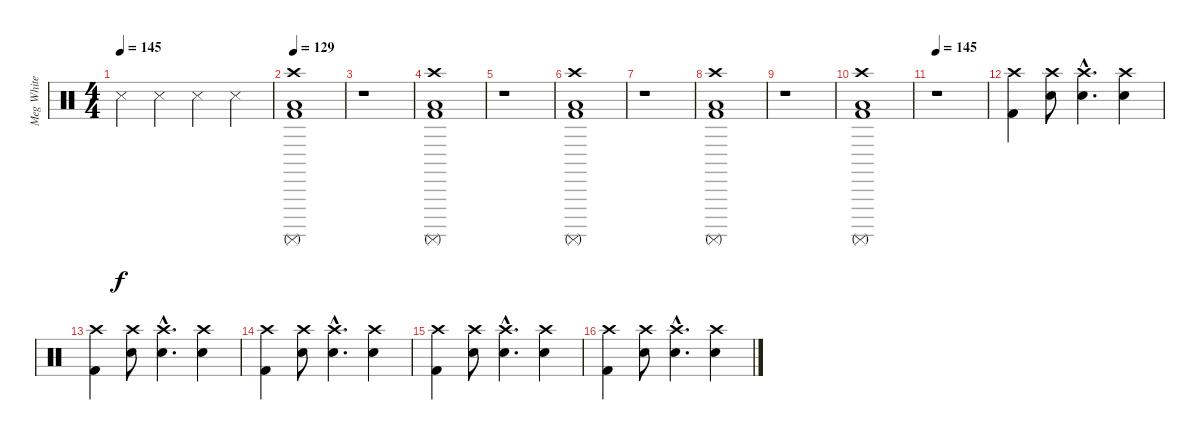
\track ("Meg White" "Meg White") {instrument percussion}
\staff {score}
\articulation defaults
\ts (4 4)
\tempo 145
\clef neutral
\ks c "Metronome (hit)".4{dy f} "Metronome (hit)".4 "Metronome (hit)".4 "Metronome (hit)".4
|
\tempo 129
("Crash high (hit)" "Low Tom (hit)" "Surdo (mute)" "Kick (hit) 2").1 |
r.1 |
("Crash high (hit)" "Low Tom (hit)" "Surdo (mute)" "Kick (hit) 2").1 |
r.1 |
("Crash high (hit)" "Low Tom (hit)" "Surdo (mute)" "Kick (hit) 2").1 |
r.1 |
("Crash high (hit)" "Low Tom (hit)" "Surdo (mute)" "Kick (hit) 2").1 |
r.1 |
("Crash high (hit)" "Low Tom (hit)" "Surdo (mute)" "Kick (hit) 2").1 |
\tempo 145
r.1 |
("Crash high (hit)" "Kick (hit) 2").4 ("Crash high (hit)" "Electric Snare (hit)").8 ("Crash high (hit)"{hac} "Electric Snare (hit)"{hac}).4{d} ("Crash high (hit)" "Electric Snare (hit)").4 |
("Crash high (hit)" "Kick (hit) 2").4 ("Crash high (hit)" "Electric Snare (hit)").8 ("Crash high (hit)"{hac} "Electric Snare (hit)"{hac}).4{d} ("Crash high (hit)" "Electric Snare (hit)").4 |
("Crash high (hit)" "Kick (hit) 2").4 ("Crash high (hit)" "Electric Snare (hit)").8 ("Crash high (hit)"{hac} "Electric Snare (hit)"{hac}).4{d} ("Crash high (hit)" "Electric Snare (hit)").4 |
("Crash high (hit)" "Kick (hit) 2").4 ("Crash high (hit)" "Electric Snare (hit)").8 ("Crash high (hit)"{hac} "Electric Snare (hit)"{hac}).4{d} ("Crash high (hit)" "Electric Snare (hit)").4 |
("Crash high (hit)" "Kick (hit) 2").4 ("Crash high (hit)" "Electric Snare (hit)").8 ("Crash high (hit)"{hac} "Electric Snare (hit)"{hac}).4{d} ("Crash high (hit)" "Electric Snare (hit)").4
